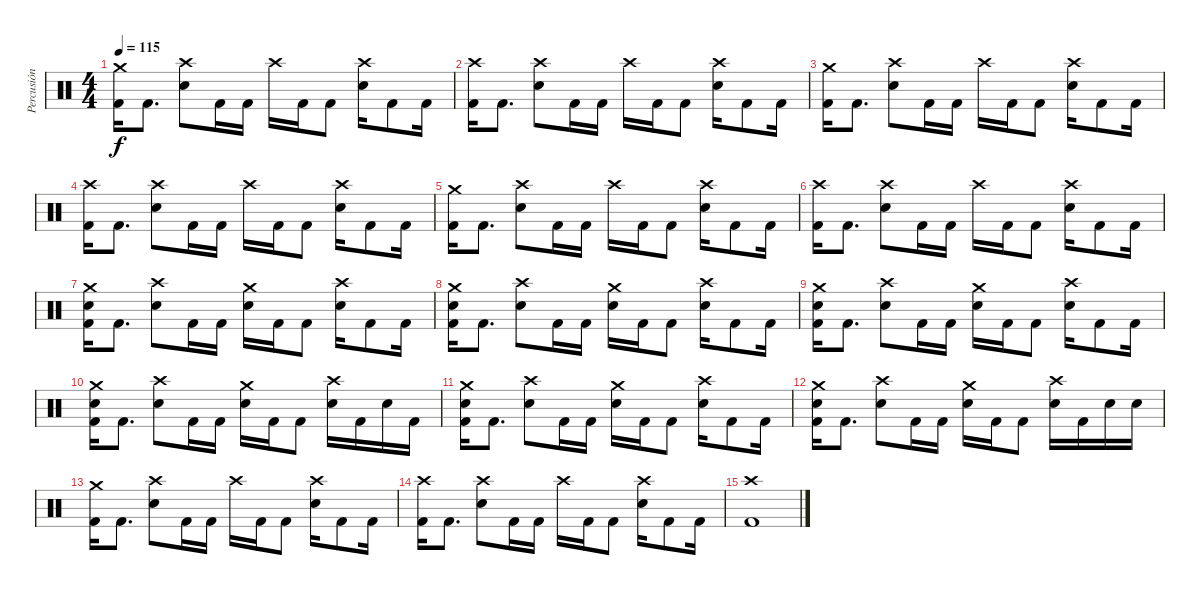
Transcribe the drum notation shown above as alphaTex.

\track ("Percusión" "Percusión") {instrument percussion}
\staff {score}
\articulation defaults
\ts (4 4)
\tempo 115
\clef neutral
\ks c
("Crash medium (hit)" "Kick (hit) 2").16{dy f} "Kick (hit) 2".8{d} ("Crash high (hit)" "Snare (hit) 2").8 "Kick (hit) 2".16 "Kick (hit) 2".16 "Crash high (hit)".16 "Kick (hit) 2".16 "Kick (hit) 2".8 ("Crash high (hit)" "Snare (hit) 2").16 "Kick (hit) 2".8 "Kick (hit) 2".16 |
("Crash high (hit)" "Kick (hit) 2").16 "Kick (hit) 2".8{d} ("Crash high (hit)" "Snare (hit) 2").8 "Kick (hit) 2".16 "Kick (hit) 2".16 "Crash high (hit)".16 "Kick (hit) 2".16 "Kick (hit) 2".8 ("Crash high (hit)" "Snare (hit) 2").16 "Kick (hit) 2".8 "Kick (hit) 2".16 |
("Crash medium (hit)" "Kick (hit) 2").16 "Kick (hit) 2".8{d} ("Crash high (hit)" "Snare (hit) 2").8 "Kick (hit) 2".16 "Kick (hit) 2".16 "Crash high (hit)".16 "Kick (hit) 2".16 "Kick (hit) 2".8 ("Crash high (hit)" "Snare (hit) 2").16 "Kick (hit) 2".8 "Kick (hit) 2".16 |
("Crash high (hit)" "Kick (hit) 2").16 "Kick (hit) 2".8{d} ("Crash high (hit)" "Snare (hit) 2").8 "Kick (hit) 2".16 "Kick (hit) 2".16 "Crash high (hit)".16 "Kick (hit) 2".16 "Kick (hit) 2".8 ("Crash high (hit)" "Snare (hit) 2").16 "Kick (hit) 2".8 "Kick (hit) 2".16 |
("Crash medium (hit)" "Kick (hit) 2").16 "Kick (hit) 2".8{d} ("Crash high (hit)" "Snare (hit) 2").8 "Kick (hit) 2".16 "Kick (hit) 2".16 "Crash high (hit)".16 "Kick (hit) 2".16 "Kick (hit) 2".8 ("Crash high (hit)" "Snare (hit) 2").16 "Kick (hit) 2".8 "Kick (hit) 2".16 |
("Crash high (hit)" "Kick (hit) 2").16 "Kick (hit) 2".8{d} ("Crash high (hit)" "Snare (hit) 2").8 "Kick (hit) 2".16 "Kick (hit) 2".16 "Crash high (hit)".16 "Kick (hit) 2".16 "Kick (hit) 2".8 ("Crash high (hit)" "Snare (hit) 2").16 "Kick (hit) 2".8 "Kick (hit) 2".16 |
("Crash medium (hit)" "Snare (hit) 2" "Kick (hit) 2").16 "Kick (hit) 2".8{d} ("Crash high (hit)" "Snare (hit) 2").8 "Kick (hit) 2".16 "Kick (hit) 2".16 ("Crash medium (hit)" "Snare (hit) 2").16 "Kick (hit) 2".16 "Kick (hit) 2".8 ("Crash high (hit)" "Snare (hit) 2").16 "Kick (hit) 2".8 "Kick (hit) 2".16 |
("Crash medium (hit)" "Snare (hit) 2" "Kick (hit) 2").16 "Kick (hit) 2".8{d} ("Crash high (hit)" "Snare (hit) 2").8 "Kick (hit) 2".16 "Kick (hit) 2".16 ("Crash medium (hit)" "Snare (hit) 2").16 "Kick (hit) 2".16 "Kick (hit) 2".8 ("Crash high (hit)" "Snare (hit) 2").16 "Kick (hit) 2".8 "Kick (hit) 2".16 |
("Crash medium (hit)" "Snare (hit) 2" "Kick (hit) 2").16 "Kick (hit) 2".8{d} ("Crash high (hit)" "Snare (hit) 2").8 "Kick (hit) 2".16 "Kick (hit) 2".16 ("Crash medium (hit)" "Snare (hit) 2").16 "Kick (hit) 2".16 "Kick (hit) 2".8 ("Crash high (hit)" "Snare (hit) 2").16 "Kick (hit) 2".8 "Kick (hit) 2".16 |
("Crash medium (hit)" "Snare (hit) 2" "Kick (hit) 2").16 "Kick (hit) 2".8{d} ("Crash high (hit)" "Snare (hit) 2").8 "Kick (hit) 2".16 "Kick (hit) 2".16 ("Crash medium (hit)" "Snare (hit) 2").16 "Kick (hit) 2".16 "Kick (hit) 2".8 ("Crash high (hit)" "Snare (hit) 2").16 "Kick (hit) 2".16 "Snare (hit) 2".16 "Kick (hit) 2".16 |
("Crash medium (hit)" "Snare (hit) 2" "Kick (hit) 2").16 "Kick (hit) 2".8{d} ("Crash high (hit)" "Snare (hit) 2").8 "Kick (hit) 2".16 "Kick (hit) 2".16 ("Crash medium (hit)" "Snare (hit) 2").16 "Kick (hit) 2".16 "Kick (hit) 2".8 ("Crash high (hit)" "Snare (hit) 2").16 "Kick (hit) 2".8 "Kick (hit) 2".16 |
("Crash medium (hit)" "Snare (hit) 2" "Kick (hit) 2").16 "Kick (hit) 2".8{d} ("Crash high (hit)" "Snare (hit) 2").8 "Kick (hit) 2".16 "Kick (hit) 2".16 ("Crash medium (hit)" "Snare (hit) 2").16 "Kick (hit) 2".16 "Kick (hit) 2".8 ("Crash high (hit)" "Snare (hit) 2").16 "Kick (hit) 2".16 "Snare (hit) 2".16 "Snare (hit) 2".16 |
("Crash medium (hit)" "Kick (hit) 2").16 "Kick (hit) 2".8{d} ("Crash high (hit)" "Snare (hit) 2").8 "Kick (hit) 2".16 "Kick (hit) 2".16 "Crash high (hit)".16 "Kick (hit) 2".16 "Kick (hit) 2".8 ("Crash high (hit)" "Snare (hit) 2").16 "Kick (hit) 2".8 "Kick (hit) 2".16 |
("Crash high (hit)" "Kick (hit) 2").16 "Kick (hit) 2".8{d} ("Crash high (hit)" "Snare (hit) 2").8 "Kick (hit) 2".16 "Kick (hit) 2".16 "Crash high (hit)".16 "Kick (hit) 2".16 "Kick (hit) 2".8 ("Crash high (hit)" "Snare (hit) 2").16 "Kick (hit) 2".8 "Kick (hit) 2".16 |
("Crash high (hit)" "Kick (hit) 2").1
